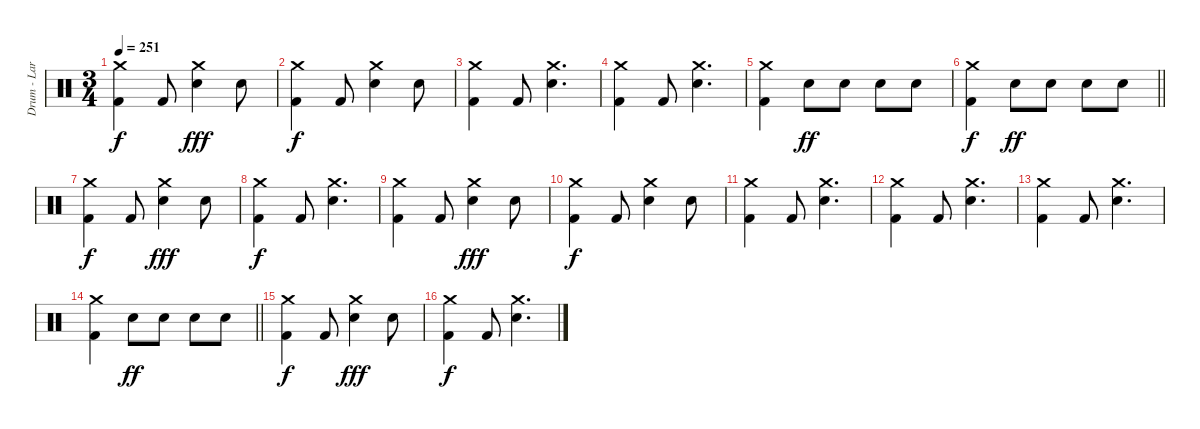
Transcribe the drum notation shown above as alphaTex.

\track ("Drum - Larzon" "Drum - Lar") {instrument percussion}
\staff {score}
\articulation defaults
\ts (3 4)
\tempo 251
\clef neutral
\ks c
("Kick (hit) 2" "Crash medium (hit)").4{dy f} "Kick (hit) 2".8 ("Snare (hit) 2" "Crash medium (hit)").4{dy fff} "Snare (hit) 2".8 |
("Kick (hit) 2" "Crash medium (hit)").4{dy f} "Kick (hit) 2".8 ("Snare (hit) 2" "Crash medium (hit)").4 "Snare (hit) 2".8 |
("Kick (hit) 2" "Crash medium (hit)").4 "Kick (hit) 2".8 ("Snare (hit) 2" "Crash medium (hit)").4{d} |
("Kick (hit) 2" "Crash medium (hit)").4 "Kick (hit) 2".8 ("Snare (hit) 2" "Crash medium (hit)").4{d} |
("Kick (hit) 2" "Crash medium (hit)").4 "Electric Snare (hit)".8{dy ff} "Electric Snare (hit)".8 "Electric Snare (hit)".8 "Electric Snare (hit)".8 |
\barLineRight lightlight
("Kick (hit) 2" "Crash medium (hit)").4{dy f} "Electric Snare (hit)".8{dy ff} "Electric Snare (hit)".8 "Electric Snare (hit)".8 "Electric Snare (hit)".8 |
("Kick (hit) 2" "Crash medium (hit)").4{dy f} "Kick (hit) 2".8 ("Snare (hit) 2" "Crash medium (hit)").4{dy fff} "Snare (hit) 2".8 |
("Kick (hit) 2" "Crash medium (hit)").4{dy f} "Kick (hit) 2".8 ("Snare (hit) 2" "Crash medium (hit)").4{d} |
("Kick (hit) 2" "Crash medium (hit)").4 "Kick (hit) 2".8 ("Snare (hit) 2" "Crash medium (hit)").4{dy fff} "Snare (hit) 2".8 |
("Kick (hit) 2" "Crash medium (hit)").4{dy f} "Kick (hit) 2".8 ("Snare (hit) 2" "Crash medium (hit)").4 "Snare (hit) 2".8 |
("Kick (hit) 2" "Crash medium (hit)").4 "Kick (hit) 2".8 ("Snare (hit) 2" "Crash medium (hit)").4{d} |
("Kick (hit) 2" "Crash medium (hit)").4 "Kick (hit) 2".8 ("Snare (hit) 2" "Crash medium (hit)").4{d} |
("Kick (hit) 2" "Crash medium (hit)").4 "Kick (hit) 2".8 ("Snare (hit) 2" "Crash medium (hit)").4{d} |
\barLineRight lightlight
("Kick (hit) 2" "Crash medium (hit)").4 "Electric Snare (hit)".8{dy ff} "Electric Snare (hit)".8 "Electric Snare (hit)".8 "Electric Snare (hit)".8 |
("Kick (hit) 2" "Crash medium (hit)").4{dy f} "Kick (hit) 2".8 ("Snare (hit) 2" "Crash medium (hit)").4{dy fff} "Snare (hit) 2".8 |
("Kick (hit) 2" "Crash medium (hit)").4{dy f} "Kick (hit) 2".8 ("Snare (hit) 2" "Crash medium (hit)").4{d}
